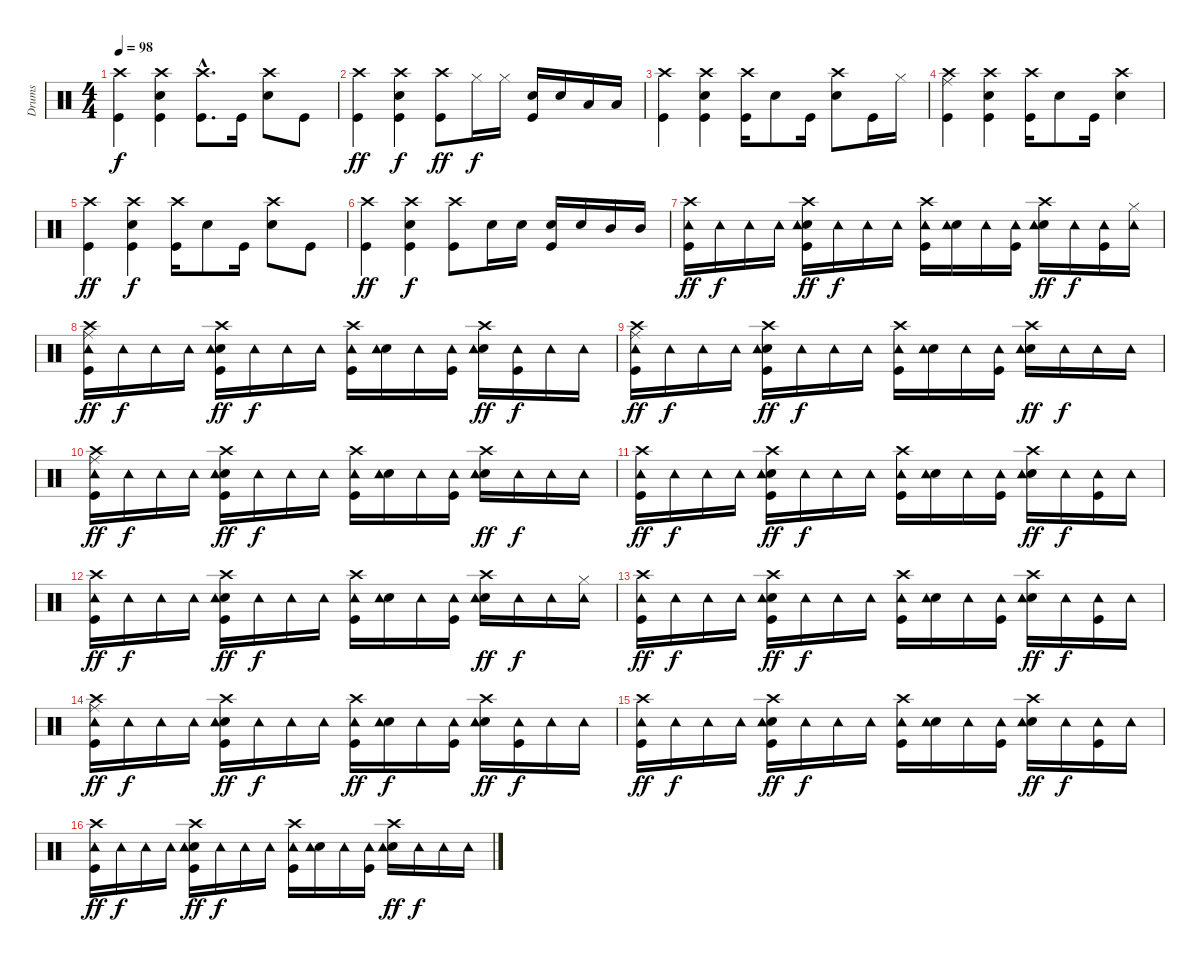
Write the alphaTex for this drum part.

\track ("Drums" "Drums") {instrument percussion}
\staff {score}
\articulation defaults
\ts (4 4)
\tempo 98
\clef neutral
\ks c
("Crash high (hit)" "Kick (hit)").4{dy f} ("Crash high (hit)" "Electric Snare (hit)" "Kick (hit)").4 ("Crash high (hit)"{hac} "Kick (hit)"{hac}).8{d} "Kick (hit)".16 ("Crash high (hit)" "Electric Snare (hit)").8 "Kick (hit)".8 |
("Crash high (hit)" "Kick (hit)").4{dy ff} ("Crash high (hit)" "Electric Snare (hit)" "Kick (hit)").4{dy f} ("Crash high (hit)" "Kick (hit)").8{dy ff} "Hi-Hat (closed)".16{dy f} "Hi-Hat (closed)".16 ("Electric Snare (hit)" "Kick (hit)").16 "Electric Snare (hit)".16 "Low Tom (hit)".16 "Low Tom (hit)".16 |
("Crash high (hit)" "Kick (hit)").4 ("Crash high (hit)" "Electric Snare (hit)" "Kick (hit)").4 ("Crash high (hit)" "Kick (hit)").16 "Electric Snare (hit)".8 "Kick (hit)".16 ("Crash high (hit)" "Electric Snare (hit)").8 "Kick (hit)".16 "Hi-Hat (closed)".16 |
("Crash high (hit)" "Kick (hit)" "Ride (middle)").4 ("Crash high (hit)" "Electric Snare (hit)" "Kick (hit)").4 ("Crash high (hit)" "Kick (hit)").16 "Electric Snare (hit)".8 "Kick (hit)".16 ("Crash high (hit)" "Electric Snare (hit)").4 |
("Crash high (hit)" "Kick (hit)").4{dy ff} ("Crash high (hit)" "Electric Snare (hit)" "Kick (hit)").4{dy f} ("Crash high (hit)" "Kick (hit)").16 "Electric Snare (hit)".8 "Kick (hit)".16 ("Crash high (hit)" "Electric Snare (hit)").8 "Kick (hit)".8 |
("Crash high (hit)" "Kick (hit)").4{dy ff} ("Crash high (hit)" "Electric Snare (hit)" "Kick (hit)").4{dy f} ("Crash high (hit)" "Kick (hit)").8 "Electric Snare (hit)".16 "Electric Snare (hit)".16 ("Electric Snare (hit)" "Kick (hit)").16 "Electric Snare (hit)".16 "Mid Tom (hit)".16 "Mid Tom (hit)".16 |
("Crash high (hit)" "Kick (hit)" "Tambourine (hit)").16{dy ff} "Tambourine (hit)".16{dy f} "Tambourine (hit)".16 "Tambourine (hit)".16 ("Crash high (hit)" "Kick (hit)" "Electric Snare (hit)" "Tambourine (hit)").16{dy ff} "Tambourine (hit)".16{dy f} "Tambourine (hit)".16 "Tambourine (hit)".16 ("Crash high (hit)" "Kick (hit)" "Tambourine (hit)").16 ("Electric Snare (hit)" "Tambourine (hit)").16 "Tambourine (hit)".16 ("Kick (hit)" "Tambourine (hit)").16 ("Crash high (hit)" "Electric Snare (hit)" "Tambourine (hit)").16{dy ff} "Tambourine (hit)".16{dy f} ("Kick (hit)" "Tambourine (hit)").16 ("Hi-Hat (closed)" "Tambourine (hit)").16 |
("Crash high (hit)" "Kick (hit)" "Ride (middle)" "Tambourine (hit)").16{dy ff} "Tambourine (hit)".16{dy f} "Tambourine (hit)".16 "Tambourine (hit)".16 ("Crash high (hit)" "Kick (hit)" "Electric Snare (hit)" "Tambourine (hit)").16{dy ff} "Tambourine (hit)".16{dy f} "Tambourine (hit)".16 "Tambourine (hit)".16 ("Crash high (hit)" "Kick (hit)" "Tambourine (hit)").16 ("Electric Snare (hit)" "Tambourine (hit)").16 "Tambourine (hit)".16 ("Kick (hit)" "Tambourine (hit)").16 ("Crash high (hit)" "Electric Snare (hit)" "Tambourine (hit)").16{dy ff} ("Kick (hit)" "Tambourine (hit)").16{dy f} "Tambourine (hit)".16 "Tambourine (hit)".16 |
("Crash high (hit)" "Kick (hit)" "Ride (middle)" "Tambourine (hit)").16{dy ff} "Tambourine (hit)".16{dy f} "Tambourine (hit)".16 "Tambourine (hit)".16 ("Crash high (hit)" "Kick (hit)" "Electric Snare (hit)" "Tambourine (hit)").16{dy ff} "Tambourine (hit)".16{dy f} "Tambourine (hit)".16 "Tambourine (hit)".16 ("Crash high (hit)" "Kick (hit)" "Tambourine (hit)").16 ("Electric Snare (hit)" "Tambourine (hit)").16 "Tambourine (hit)".16 ("Kick (hit)" "Tambourine (hit)").16 ("Crash high (hit)" "Electric Snare (hit)" "Tambourine (hit)").16{dy ff} "Tambourine (hit)".16{dy f} "Tambourine (hit)".16 "Tambourine (hit)".16 |
("Crash high (hit)" "Kick (hit)" "Ride (middle)" "Tambourine (hit)").16{dy ff} "Tambourine (hit)".16{dy f} "Tambourine (hit)".16 "Tambourine (hit)".16 ("Crash high (hit)" "Kick (hit)" "Electric Snare (hit)" "Tambourine (hit)").16{dy ff} "Tambourine (hit)".16{dy f} "Tambourine (hit)".16 "Tambourine (hit)".16 ("Crash high (hit)" "Kick (hit)" "Tambourine (hit)").16 ("Electric Snare (hit)" "Tambourine (hit)").16 "Tambourine (hit)".16 ("Kick (hit)" "Tambourine (hit)").16 ("Crash high (hit)" "Electric Snare (hit)" "Tambourine (hit)").16{dy ff} "Tambourine (hit)".16{dy f} "Tambourine (hit)".16 "Tambourine (hit)".16 |
("Crash high (hit)" "Kick (hit)" "Tambourine (hit)").16{dy ff} "Tambourine (hit)".16{dy f} "Tambourine (hit)".16 "Tambourine (hit)".16 ("Crash high (hit)" "Kick (hit)" "Electric Snare (hit)" "Tambourine (hit)").16{dy ff} "Tambourine (hit)".16{dy f} "Tambourine (hit)".16 "Tambourine (hit)".16 ("Crash high (hit)" "Kick (hit)" "Tambourine (hit)").16 ("Electric Snare (hit)" "Tambourine (hit)").16 "Tambourine (hit)".16 ("Kick (hit)" "Tambourine (hit)").16 ("Crash high (hit)" "Electric Snare (hit)" "Tambourine (hit)").16{dy ff} "Tambourine (hit)".16{dy f} ("Kick (hit)" "Tambourine (hit)").16 "Tambourine (hit)".16 |
("Crash high (hit)" "Kick (hit)" "Tambourine (hit)").16{dy ff} "Tambourine (hit)".16{dy f} "Tambourine (hit)".16 "Tambourine (hit)".16 ("Crash high (hit)" "Kick (hit)" "Electric Snare (hit)" "Tambourine (hit)").16{dy ff} "Tambourine (hit)".16{dy f} "Tambourine (hit)".16 "Tambourine (hit)".16 ("Crash high (hit)" "Kick (hit)" "Tambourine (hit)").16 ("Electric Snare (hit)" "Tambourine (hit)").16 "Tambourine (hit)".16 ("Kick (hit)" "Tambourine (hit)").16 ("Crash high (hit)" "Electric Snare (hit)" "Tambourine (hit)").16{dy ff} "Tambourine (hit)".16{dy f} "Tambourine (hit)".16 ("Hi-Hat (closed)" "Tambourine (hit)").16 |
("Crash high (hit)" "Kick (hit)" "Tambourine (hit)").16{dy ff} "Tambourine (hit)".16{dy f} "Tambourine (hit)".16 "Tambourine (hit)".16 ("Crash high (hit)" "Kick (hit)" "Electric Snare (hit)" "Tambourine (hit)").16{dy ff} "Tambourine (hit)".16{dy f} "Tambourine (hit)".16 "Tambourine (hit)".16 ("Crash high (hit)" "Kick (hit)" "Tambourine (hit)").16 ("Electric Snare (hit)" "Tambourine (hit)").16 "Tambourine (hit)".16 ("Kick (hit)" "Tambourine (hit)").16 ("Crash high (hit)" "Electric Snare (hit)" "Tambourine (hit)").16{dy ff} "Tambourine (hit)".16{dy f} ("Kick (hit)" "Tambourine (hit)").16 "Tambourine (hit)".16 |
("Crash high (hit)" "Kick (hit)" "Ride (middle)" "Tambourine (hit)").16{dy ff} "Tambourine (hit)".16{dy f} "Tambourine (hit)".16 "Tambourine (hit)".16 ("Crash high (hit)" "Kick (hit)" "Electric Snare (hit)" "Tambourine (hit)").16{dy ff} "Tambourine (hit)".16{dy f} "Tambourine (hit)".16 "Tambourine (hit)".16 ("Crash high (hit)" "Kick (hit)" "Tambourine (hit)").16{dy ff} ("Electric Snare (hit)" "Tambourine (hit)").16{dy f} "Tambourine (hit)".16 ("Kick (hit)" "Tambourine (hit)").16 ("Crash high (hit)" "Electric Snare (hit)" "Tambourine (hit)").16{dy ff} ("Kick (hit)" "Tambourine (hit)").16{dy f} "Tambourine (hit)".16 "Tambourine (hit)".16 |
("Crash high (hit)" "Kick (hit)" "Tambourine (hit)").16{dy ff} "Tambourine (hit)".16{dy f} "Tambourine (hit)".16 "Tambourine (hit)".16 ("Crash high (hit)" "Kick (hit)" "Electric Snare (hit)" "Tambourine (hit)").16{dy ff} "Tambourine (hit)".16{dy f} "Tambourine (hit)".16 "Tambourine (hit)".16 ("Crash high (hit)" "Kick (hit)" "Tambourine (hit)").16 ("Electric Snare (hit)" "Tambourine (hit)").16 "Tambourine (hit)".16 ("Kick (hit)" "Tambourine (hit)").16 ("Crash high (hit)" "Electric Snare (hit)" "Tambourine (hit)").16{dy ff} "Tambourine (hit)".16{dy f} ("Kick (hit)" "Tambourine (hit)").16 "Tambourine (hit)".16 |
("Crash high (hit)" "Kick (hit)" "Tambourine (hit)").16{dy ff} "Tambourine (hit)".16{dy f} "Tambourine (hit)".16 "Tambourine (hit)".16 ("Crash high (hit)" "Kick (hit)" "Electric Snare (hit)" "Tambourine (hit)").16{dy ff} "Tambourine (hit)".16{dy f} "Tambourine (hit)".16 "Tambourine (hit)".16 ("Crash high (hit)" "Kick (hit)" "Tambourine (hit)").16 ("Electric Snare (hit)" "Tambourine (hit)").16 "Tambourine (hit)".16 ("Kick (hit)" "Tambourine (hit)").16 ("Crash high (hit)" "Electric Snare (hit)" "Tambourine (hit)").16{dy ff} "Tambourine (hit)".16{dy f} "Tambourine (hit)".16 "Tambourine (hit)".16
